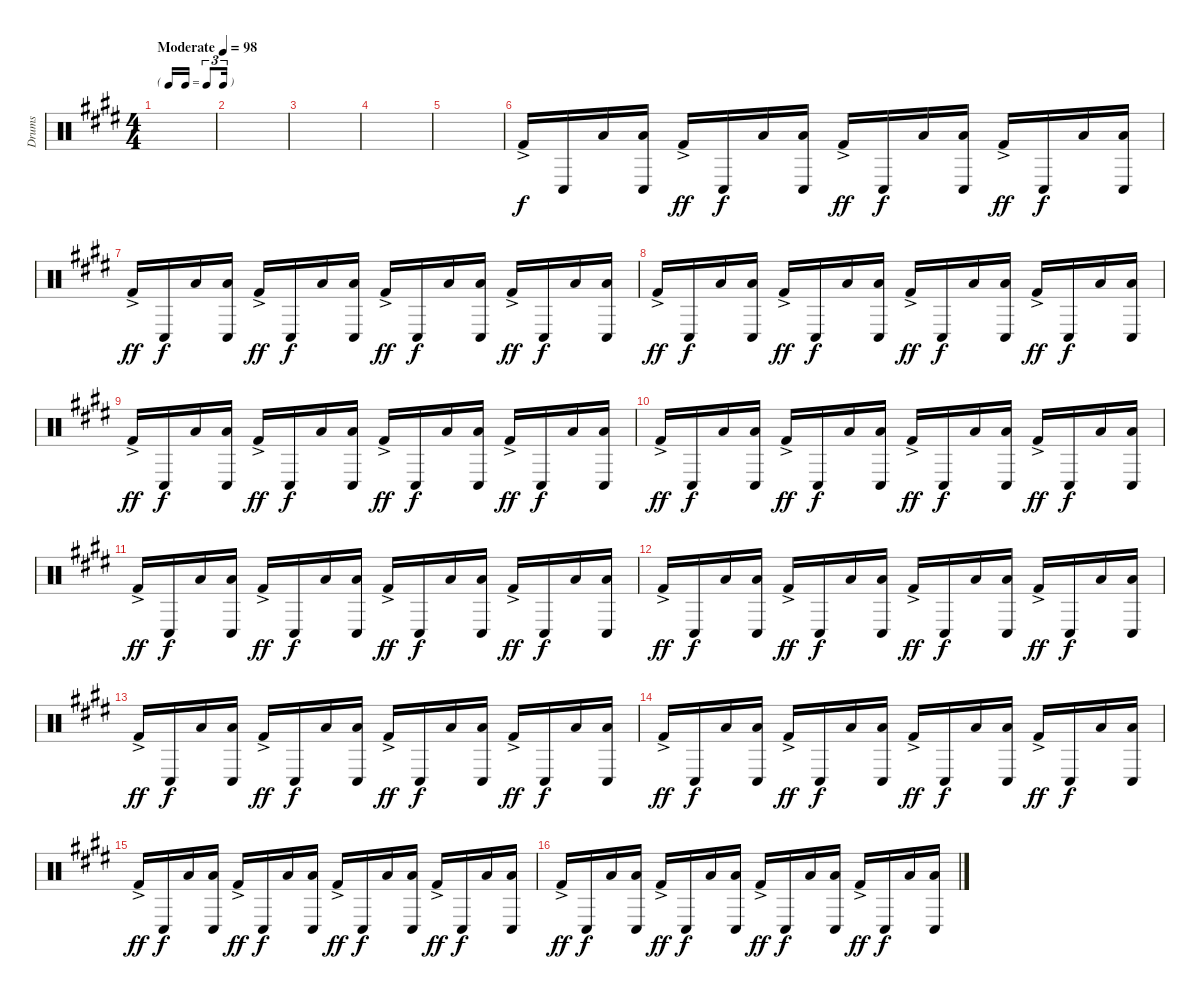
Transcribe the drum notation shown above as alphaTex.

\track ("Drums" "Drums") {instrument percussion}
\staff {score}
\articulation defaults
\ts (4 4)
\tf triplet16th
\tempo (98 "Moderate")
\clef neutral
\ks e
|
|
|
|
|
"Kick (hit) 2"{ac}.16 "Conga low (hit)".16{dy f} "Low Tom (hit)".16 ("Low Tom (hit)" "Conga low (hit)").16 "Kick (hit) 2"{ac}.16{dy ff} "Conga low (hit)".16{dy f} "Low Tom (hit)".16 ("Low Tom (hit)" "Conga low (hit)").16 "Kick (hit) 2"{ac}.16{dy ff} "Conga low (hit)".16{dy f} "Low Tom (hit)".16 ("Low Tom (hit)" "Conga low (hit)").16 "Kick (hit) 2"{ac}.16{dy ff} "Conga low (hit)".16{dy f} "Low Tom (hit)".16 ("Low Tom (hit)" "Conga low (hit)").16 |
"Kick (hit) 2"{ac}.16{dy ff} "Conga low (hit)".16{dy f} "Low Tom (hit)".16 ("Low Tom (hit)" "Conga low (hit)").16 "Kick (hit) 2"{ac}.16{dy ff} "Conga low (hit)".16{dy f} "Low Tom (hit)".16 ("Low Tom (hit)" "Conga low (hit)").16 "Kick (hit) 2"{ac}.16{dy ff} "Conga low (hit)".16{dy f} "Low Tom (hit)".16 ("Low Tom (hit)" "Conga low (hit)").16 "Kick (hit) 2"{ac}.16{dy ff} "Conga low (hit)".16{dy f} "Low Tom (hit)".16 ("Low Tom (hit)" "Conga low (hit)").16 |
"Kick (hit) 2"{ac}.16{dy ff} "Conga low (hit)".16{dy f} "Low Tom (hit)".16 ("Low Tom (hit)" "Conga low (hit)").16 "Kick (hit) 2"{ac}.16{dy ff} "Conga low (hit)".16{dy f} "Low Tom (hit)".16 ("Low Tom (hit)" "Conga low (hit)").16 "Kick (hit) 2"{ac}.16{dy ff} "Conga low (hit)".16{dy f} "Low Tom (hit)".16 ("Low Tom (hit)" "Conga low (hit)").16 "Kick (hit) 2"{ac}.16{dy ff} "Conga low (hit)".16{dy f} "Low Tom (hit)".16 ("Low Tom (hit)" "Conga low (hit)").16 |
"Kick (hit) 2"{ac}.16{dy ff} "Conga low (hit)".16{dy f} "Low Tom (hit)".16 ("Low Tom (hit)" "Conga low (hit)").16 "Kick (hit) 2"{ac}.16{dy ff} "Conga low (hit)".16{dy f} "Low Tom (hit)".16 ("Low Tom (hit)" "Conga low (hit)").16 "Kick (hit) 2"{ac}.16{dy ff} "Conga low (hit)".16{dy f} "Low Tom (hit)".16 ("Low Tom (hit)" "Conga low (hit)").16 "Kick (hit) 2"{ac}.16{dy ff} "Conga low (hit)".16{dy f} "Low Tom (hit)".16 ("Low Tom (hit)" "Conga low (hit)").16 |
"Kick (hit) 2"{ac}.16{dy ff} "Conga low (hit)".16{dy f} "Low Tom (hit)".16 ("Low Tom (hit)" "Conga low (hit)").16 "Kick (hit) 2"{ac}.16{dy ff} "Conga low (hit)".16{dy f} "Low Tom (hit)".16 ("Low Tom (hit)" "Conga low (hit)").16 "Kick (hit) 2"{ac}.16{dy ff} "Conga low (hit)".16{dy f} "Low Tom (hit)".16 ("Low Tom (hit)" "Conga low (hit)").16 "Kick (hit) 2"{ac}.16{dy ff} "Conga low (hit)".16{dy f} "Low Tom (hit)".16 ("Low Tom (hit)" "Conga low (hit)").16 |
"Kick (hit) 2"{ac}.16{dy ff} "Conga low (hit)".16{dy f} "Low Tom (hit)".16 ("Low Tom (hit)" "Conga low (hit)").16 "Kick (hit) 2"{ac}.16{dy ff} "Conga low (hit)".16{dy f} "Low Tom (hit)".16 ("Low Tom (hit)" "Conga low (hit)").16 "Kick (hit) 2"{ac}.16{dy ff} "Conga low (hit)".16{dy f} "Low Tom (hit)".16 ("Low Tom (hit)" "Conga low (hit)").16 "Kick (hit) 2"{ac}.16{dy ff} "Conga low (hit)".16{dy f} "Low Tom (hit)".16 ("Low Tom (hit)" "Conga low (hit)").16 |
"Kick (hit) 2"{ac}.16{dy ff} "Conga low (hit)".16{dy f} "Low Tom (hit)".16 ("Low Tom (hit)" "Conga low (hit)").16 "Kick (hit) 2"{ac}.16{dy ff} "Conga low (hit)".16{dy f} "Low Tom (hit)".16 ("Low Tom (hit)" "Conga low (hit)").16 "Kick (hit) 2"{ac}.16{dy ff} "Conga low (hit)".16{dy f} "Low Tom (hit)".16 ("Low Tom (hit)" "Conga low (hit)").16 "Kick (hit) 2"{ac}.16{dy ff} "Conga low (hit)".16{dy f} "Low Tom (hit)".16 ("Low Tom (hit)" "Conga low (hit)").16 |
"Kick (hit) 2"{ac}.16{dy ff} "Conga low (hit)".16{dy f} "Low Tom (hit)".16 ("Low Tom (hit)" "Conga low (hit)").16 "Kick (hit) 2"{ac}.16{dy ff} "Conga low (hit)".16{dy f} "Low Tom (hit)".16 ("Low Tom (hit)" "Conga low (hit)").16 "Kick (hit) 2"{ac}.16{dy ff} "Conga low (hit)".16{dy f} "Low Tom (hit)".16 ("Low Tom (hit)" "Conga low (hit)").16 "Kick (hit) 2"{ac}.16{dy ff} "Conga low (hit)".16{dy f} "Low Tom (hit)".16 ("Low Tom (hit)" "Conga low (hit)").16 |
"Kick (hit) 2"{ac}.16{dy ff} "Conga low (hit)".16{dy f} "Low Tom (hit)".16 ("Low Tom (hit)" "Conga low (hit)").16 "Kick (hit) 2"{ac}.16{dy ff} "Conga low (hit)".16{dy f} "Low Tom (hit)".16 ("Low Tom (hit)" "Conga low (hit)").16 "Kick (hit) 2"{ac}.16{dy ff} "Conga low (hit)".16{dy f} "Low Tom (hit)".16 ("Low Tom (hit)" "Conga low (hit)").16 "Kick (hit) 2"{ac}.16{dy ff} "Conga low (hit)".16{dy f} "Low Tom (hit)".16 ("Low Tom (hit)" "Conga low (hit)").16 |
"Kick (hit) 2"{ac}.16{dy ff} "Conga low (hit)".16{dy f} "Low Tom (hit)".16 ("Low Tom (hit)" "Conga low (hit)").16 "Kick (hit) 2"{ac}.16{dy ff} "Conga low (hit)".16{dy f} "Low Tom (hit)".16 ("Low Tom (hit)" "Conga low (hit)").16 "Kick (hit) 2"{ac}.16{dy ff} "Conga low (hit)".16{dy f} "Low Tom (hit)".16 ("Low Tom (hit)" "Conga low (hit)").16 "Kick (hit) 2"{ac}.16{dy ff} "Conga low (hit)".16{dy f} "Low Tom (hit)".16 ("Low Tom (hit)" "Conga low (hit)").16 |
"Kick (hit) 2"{ac}.16{dy ff} "Conga low (hit)".16{dy f} "Low Tom (hit)".16 ("Low Tom (hit)" "Conga low (hit)").16 "Kick (hit) 2"{ac}.16{dy ff} "Conga low (hit)".16{dy f} "Low Tom (hit)".16 ("Low Tom (hit)" "Conga low (hit)").16 "Kick (hit) 2"{ac}.16{dy ff} "Conga low (hit)".16{dy f} "Low Tom (hit)".16 ("Low Tom (hit)" "Conga low (hit)").16 "Kick (hit) 2"{ac}.16{dy ff} "Conga low (hit)".16{dy f} "Low Tom (hit)".16 ("Low Tom (hit)" "Conga low (hit)").16
